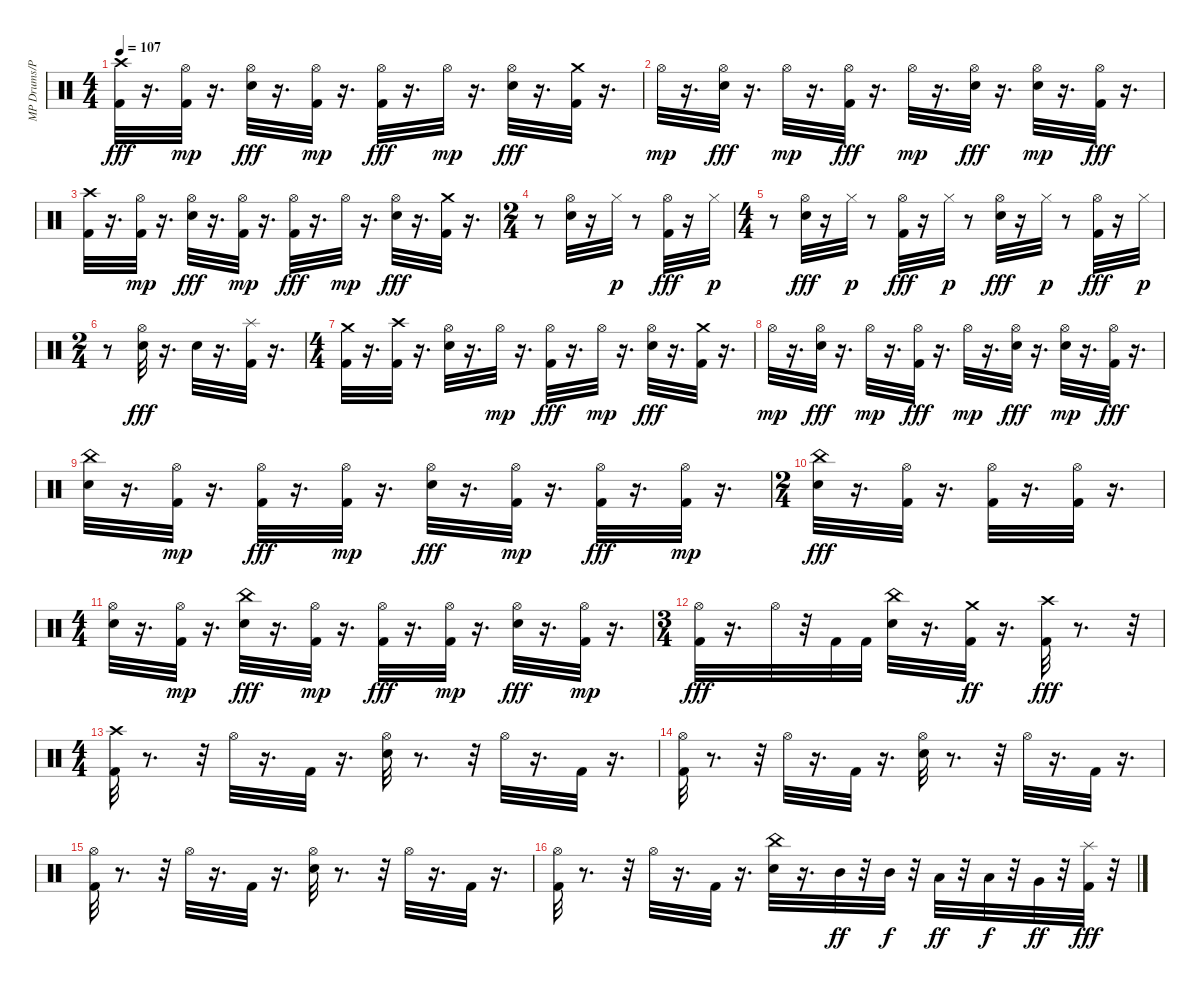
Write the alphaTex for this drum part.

\track ("MP Drums/Percussion" "MP Drums/P") {instrument percussion}
\staff {score}
\articulation defaults
\ts (4 4)
\tempo 107
\clef neutral
\ks c
("Kick (hit) 2" "Crash high (hit)").32{dy fff} r.16{d} ("Kick (hit) 2" "Hi-Hat (open)").32{dy mp} r.16{d} ("Snare (hit) 2" "Hi-Hat (open)").32{dy fff} r.16{d} ("Kick (hit) 2" "Hi-Hat (open)").32{dy mp} r.16{d} ("Kick (hit) 2" "Hi-Hat (open)").32{dy fff} r.16{d} "Hi-Hat (open)".32{dy mp} r.16{d} ("Snare (hit) 2" "Hi-Hat (open)").32{dy fff} r.16{d} ("Kick (hit) 2" "Crash medium (hit)").32 r.16{d} |
"Hi-Hat (open)".32{dy mp} r.16{d} ("Snare (hit) 2" "Hi-Hat (open)").32{dy fff} r.16{d} "Hi-Hat (open)".32{dy mp} r.16{d} ("Kick (hit) 2" "Hi-Hat (open)").32{dy fff} r.16{d} "Hi-Hat (open)".32{dy mp} r.16{d} ("Snare (hit) 2" "Hi-Hat (open)").32{dy fff} r.16{d} ("Snare (hit) 2" "Hi-Hat (open)").32{dy mp} r.16{d} ("Kick (hit) 2" "Hi-Hat (open)").32{dy fff} r.16{d} |
("Kick (hit) 2" "Crash high (hit)").32 r.16{d} ("Kick (hit) 2" "Hi-Hat (open)").32{dy mp} r.16{d} ("Snare (hit) 2" "Hi-Hat (open)").32{dy fff} r.16{d} ("Kick (hit) 2" "Hi-Hat (open)").32{dy mp} r.16{d} ("Kick (hit) 2" "Hi-Hat (open)").32{dy fff} r.16{d} "Hi-Hat (open)".32{dy mp} r.16{d} ("Snare (hit) 2" "Hi-Hat (open)").32{dy fff} r.16{d} ("Kick (hit) 2" "Crash medium (hit)").32 r.16{d} |
\ts (2 4)
r.8 ("Snare (hit) 2" "Hi-Hat (open)").32 r.16 "Hi-Hat (closed)".32{dy p} r.8 ("Kick (hit) 2" "Hi-Hat (open)").32{dy fff} r.16 "Hi-Hat (closed)".32{dy p} |
\ts (4 4)
r.8 ("Snare (hit) 2" "Hi-Hat (open)").32{dy fff} r.16 "Hi-Hat (closed)".32{dy p} r.8 ("Kick (hit) 2" "Hi-Hat (open)").32{dy fff} r.16 "Hi-Hat (closed)".32{dy p} r.8 ("Snare (hit) 2" "Hi-Hat (open)").32{dy fff} r.16 "Hi-Hat (closed)".32{dy p} r.8 ("Kick (hit) 2" "Hi-Hat (open)").32{dy fff} r.16 "Hi-Hat (closed)".32{dy p} |
\ts (2 4)
r.8 ("Snare (hit) 2" "Hi-Hat (open)").32{dy fff} r.16{d} "Snare (hit) 2".32 r.16{d} ("Kick (hit) 2" "Splash (hit)").32 r.16{d} |
\ts (4 4)
("Kick (hit) 2" "Crash medium (hit)").32 r.16{d} ("Kick (hit) 2" "Crash high (hit)").32 r.16{d} ("Snare (hit) 2" "Hi-Hat (open)").32 r.16{d} "Hi-Hat (open)".32{dy mp} r.16{d} ("Kick (hit) 2" "Hi-Hat (open)").32{dy fff} r.16{d} "Hi-Hat (open)".32{dy mp} r.16{d} ("Snare (hit) 2" "Hi-Hat (open)").32{dy fff} r.16{d} ("Kick (hit) 2" "Crash medium (hit)").32 r.16{d} |
"Hi-Hat (open)".32{dy mp} r.16{d} ("Snare (hit) 2" "Hi-Hat (open)").32{dy fff} r.16{d} "Hi-Hat (open)".32{dy mp} r.16{d} ("Kick (hit) 2" "Hi-Hat (open)").32{dy fff} r.16{d} "Hi-Hat (open)".32{dy mp} r.16{d} ("Snare (hit) 2" "Hi-Hat (open)").32{dy fff} r.16{d} ("Snare (hit) 2" "Hi-Hat (open)").32{dy mp} r.16{d} ("Kick (hit) 2" "Hi-Hat (open)").32{dy fff} r.16{d} |
("Snare (hit) 2" "China (hit)").32 r.16{d} ("Kick (hit) 2" "Hi-Hat (open)").32{dy mp} r.16{d} ("Kick (hit) 2" "Hi-Hat (open)").32{dy fff} r.16{d} ("Kick (hit) 2" "Hi-Hat (open)").32{dy mp} r.16{d} ("Snare (hit) 2" "Hi-Hat (open)").32{dy fff} r.16{d} ("Kick (hit) 2" "Hi-Hat (open)").32{dy mp} r.16{d} ("Kick (hit) 2" "Hi-Hat (open)").32{dy fff} r.16{d} ("Kick (hit) 2" "Hi-Hat (open)").32{dy mp} r.16{d} |
\ts (2 4)
("Snare (hit) 2" "China (hit)").32{dy fff} r.16{d} ("Kick (hit) 2" "Hi-Hat (open)").32 r.16{d} ("Kick (hit) 2" "Hi-Hat (open)").32 r.16{d} ("Kick (hit) 2" "Hi-Hat (open)").32 r.16{d} |
\ts (4 4)
("Snare (hit) 2" "Hi-Hat (open)").32 r.16{d} ("Kick (hit) 2" "Hi-Hat (open)").32{dy mp} r.16{d} ("Snare (hit) 2" "China (hit)").32{dy fff} r.16{d} ("Kick (hit) 2" "Hi-Hat (open)").32{dy mp} r.16{d} ("Kick (hit) 2" "Hi-Hat (open)").32{dy fff} r.16{d} ("Kick (hit) 2" "Hi-Hat (open)").32{dy mp} r.16{d} ("Snare (hit) 2" "Hi-Hat (open)").32{dy fff} r.16{d} ("Kick (hit) 2" "Hi-Hat (open)").32{dy mp} r.16{d} |
\ts (3 4)
("Kick (hit) 2" "Hi-Hat (open)").32{dy fff} r.16{d} "Hi-Hat (open)".32 r.32 "Kick (hit) 2".32 "Kick (hit) 2".32 ("Snare (hit) 2" "China (hit)").32 r.16{d} ("Kick (hit) 2" "Crash medium (hit)").32{dy ff} r.16{d} ("Kick (hit) 2" "Crash high (hit)").32{dy fff} r.8{d} r.32 |
\ts (4 4)
("Kick (hit) 2" "Crash high (hit)").32 r.8{d} r.32 "Hi-Hat (open)".32 r.16{d} "Kick (hit) 2".32 r.16{d} ("Snare (hit) 2" "Hi-Hat (open)").32 r.8{d} r.32 "Hi-Hat (open)".32 r.16{d} "Kick (hit) 2".32 r.16{d} |
("Kick (hit) 2" "Hi-Hat (open)").32 r.8{d} r.32 "Hi-Hat (open)".32 r.16{d} "Kick (hit) 2".32 r.16{d} ("Snare (hit) 2" "Hi-Hat (open)").32 r.8{d} r.32 "Hi-Hat (open)".32 r.16{d} "Kick (hit) 2".32 r.16{d} |
("Kick (hit) 2" "Hi-Hat (open)").32 r.8{d} r.32 "Hi-Hat (open)".32 r.16{d} "Kick (hit) 2".32 r.16{d} ("Snare (hit) 2" "Hi-Hat (open)").32 r.8{d} r.32 "Hi-Hat (open)".32 r.16{d} "Kick (hit) 2".32 r.16{d} |
("Kick (hit) 2" "Hi-Hat (open)").32 r.8{d} r.32 "Hi-Hat (open)".32 r.16{d} "Kick (hit) 2".32 r.16{d} ("Snare (hit) 2" "China (hit)").32 r.16{d} "Mid Tom (hit)".32{dy ff} r.32 "Mid Tom (hit)".32{dy f} r.32 "Low Tom (hit)".32{dy ff} r.32 "Low Tom (hit)".32{dy f} r.32 "Very Low Tom (hit)".32{dy ff} r.32 ("Kick (hit) 2" "Splash (hit)").32{dy fff} r.32
